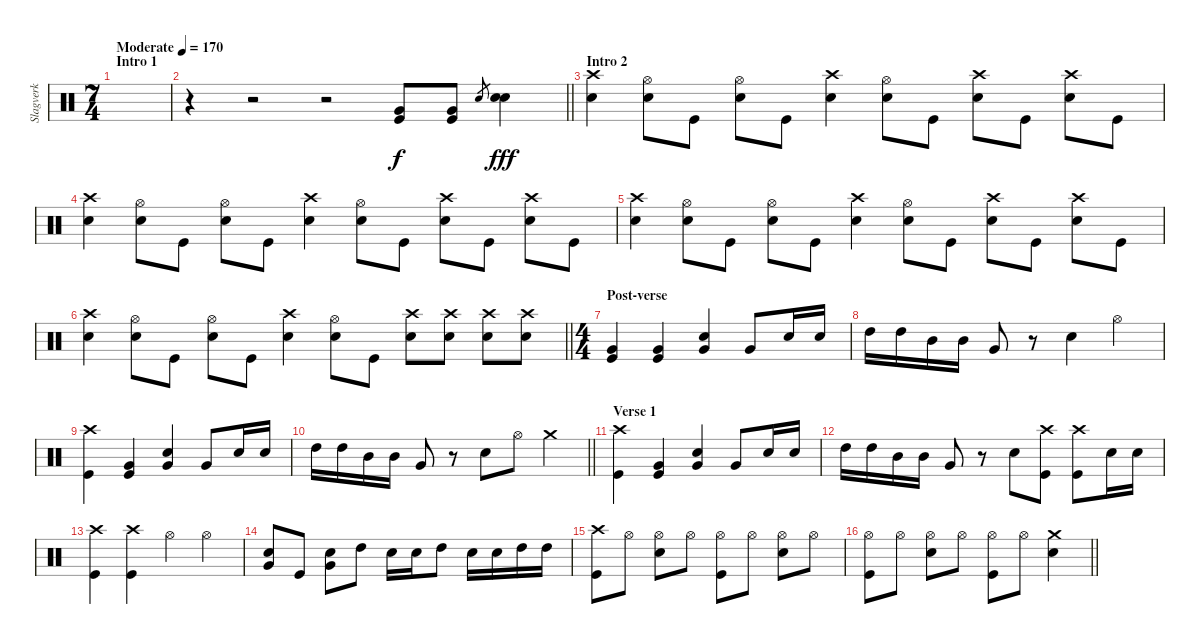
\track ("Slagverk" "Slagverk") {instrument percussion}
\staff {score}
\articulation defaults
\ts (7 4)
\section ("" "Intro 1")
\tempo (170 "Moderate")
\clef neutral
\ks c
|
\barLineRight lightlight
r.4 r.2 r.2 ("Very Low Tom (hit)" "Kick (hit)").8 ("Very Low Tom (hit)" "Kick (hit)").8 "Electric Snare (hit)".8{gr dy f} ("Electric Snare (hit)" "Electric Snare (hit)").4{dy fff} |
\section ("" "Intro 2")
("Crash high (hit)" "Electric Snare (hit)").4 ("Hi-Hat (open)" "Electric Snare (hit)").8 "Kick (hit)".8 ("Hi-Hat (open)" "Electric Snare (hit)").8 "Kick (hit)".8 ("Crash high (hit)" "Electric Snare (hit)").4 ("Hi-Hat (open)" "Electric Snare (hit)").8 "Kick (hit)".8 ("Crash high (hit)" "Electric Snare (hit)").8 "Kick (hit)".8 ("Crash high (hit)" "Electric Snare (hit)").8 "Kick (hit)".8 |
("Crash high (hit)" "Electric Snare (hit)").4 ("Hi-Hat (open)" "Electric Snare (hit)").8 "Kick (hit)".8 ("Hi-Hat (open)" "Electric Snare (hit)").8 "Kick (hit)".8 ("Crash high (hit)" "Electric Snare (hit)").4 ("Hi-Hat (open)" "Electric Snare (hit)").8 "Kick (hit)".8 ("Crash high (hit)" "Electric Snare (hit)").8 "Kick (hit)".8 ("Crash high (hit)" "Electric Snare (hit)").8 "Kick (hit)".8 |
("Crash high (hit)" "Electric Snare (hit)").4 ("Hi-Hat (open)" "Electric Snare (hit)").8 "Kick (hit)".8 ("Hi-Hat (open)" "Electric Snare (hit)").8 "Kick (hit)".8 ("Crash high (hit)" "Electric Snare (hit)").4 ("Hi-Hat (open)" "Electric Snare (hit)").8 "Kick (hit)".8 ("Crash high (hit)" "Electric Snare (hit)").8 "Kick (hit)".8 ("Crash high (hit)" "Electric Snare (hit)").8 "Kick (hit)".8 |
\barLineRight lightlight
("Crash high (hit)" "Electric Snare (hit)").4 ("Hi-Hat (open)" "Electric Snare (hit)").8 "Kick (hit)".8 ("Hi-Hat (open)" "Electric Snare (hit)").8 "Kick (hit)".8 ("Crash high (hit)" "Electric Snare (hit)").4 ("Hi-Hat (open)" "Electric Snare (hit)").8 "Kick (hit)".8 ("Crash high (hit)" "Electric Snare (hit)").8 ("Crash high (hit)" "Electric Snare (hit)").8 ("Crash high (hit)" "Electric Snare (hit)").8 ("Crash high (hit)" "Electric Snare (hit)").8 |
\ts (4 4)
\section ("" "Post-verse")
("Very Low Tom (hit)" "Kick (hit)").4 ("Very Low Tom (hit)" "Kick (hit)").4 ("Very Low Tom (hit)" "Electric Snare (hit)").4 "Very Low Tom (hit)".8 "Electric Snare (hit)".16 "Electric Snare (hit)".16 |
"High Tom (hit)".16 "High Tom (hit)".16 "Mid Tom (hit)".16 "Mid Tom (hit)".16 "Very Low Tom (hit)".8 r.8 "Electric Snare (hit)".4 "Hi-Hat (open)".4 |
("Crash high (hit)" "Kick (hit)").4 ("Very Low Tom (hit)" "Kick (hit)").4 ("Very Low Tom (hit)" "Electric Snare (hit)").4 "Very Low Tom (hit)".8 "Electric Snare (hit)".16 "Electric Snare (hit)".16 |
\barLineRight lightlight "High Tom (hit)".16 "High Tom (hit)".16 "Mid Tom (hit)".16 "Mid Tom (hit)".16 "Very Low Tom (hit)".8
r.8 "Electric Snare (hit)".8 "Hi-Hat (open)".8 "Crash medium (hit)".4 |
\section ("" "Verse 1")
("Crash high (hit)" "Kick (hit)").4 ("Very Low Tom (hit)" "Kick (hit)").4 ("Very Low Tom (hit)" "Electric Snare (hit)").4 "Very Low Tom (hit)".8 "Electric Snare (hit)".16 "Electric Snare (hit)".16 |
"High Tom (hit)".16 "High Tom (hit)".16 "Mid Tom (hit)".16 "Mid Tom (hit)".16 "Very Low Tom (hit)".8 r.8 "Electric Snare (hit)".8 ("Crash high (hit)" "Kick (hit)").8 ("Crash high (hit)" "Kick (hit)").8 "Electric Snare (hit)".16 "Electric Snare (hit)".16 |
("Crash high (hit)" "Kick (hit)").4 ("Crash high (hit)" "Kick (hit)").4 "Hi-Hat (open)".4 "Hi-Hat (open)".4 |
("Very Low Tom (hit)" "Electric Snare (hit)").8 "Kick (hit)".8 ("Very Low Tom (hit)" "Electric Snare (hit)").8 "High Tom (hit)".8 "Electric Snare (hit)".16 "Electric Snare (hit)".16 "High Tom (hit)".8 "Electric Snare (hit)".16 "Electric Snare (hit)".16 "High Tom (hit)".16 "High Tom (hit)".16 |
("Crash high (hit)" "Kick (hit)").8 "Hi-Hat (open)".8 ("Hi-Hat (open)" "Electric Snare (hit)").8 "Hi-Hat (open)".8 ("Hi-Hat (open)" "Kick (hit)").8 "Hi-Hat (open)".8 ("Hi-Hat (open)" "Electric Snare (hit)").8 "Hi-Hat (open)".8 |
\barLineRight lightlight
("Hi-Hat (open)" "Kick (hit)").8 "Hi-Hat (open)".8 ("Hi-Hat (open)" "Electric Snare (hit)").8 "Hi-Hat (open)".8 ("Hi-Hat (open)" "Kick (hit)").8 "Hi-Hat (open)".8 ("Crash medium (hit)" "Electric Snare (hit)").4
